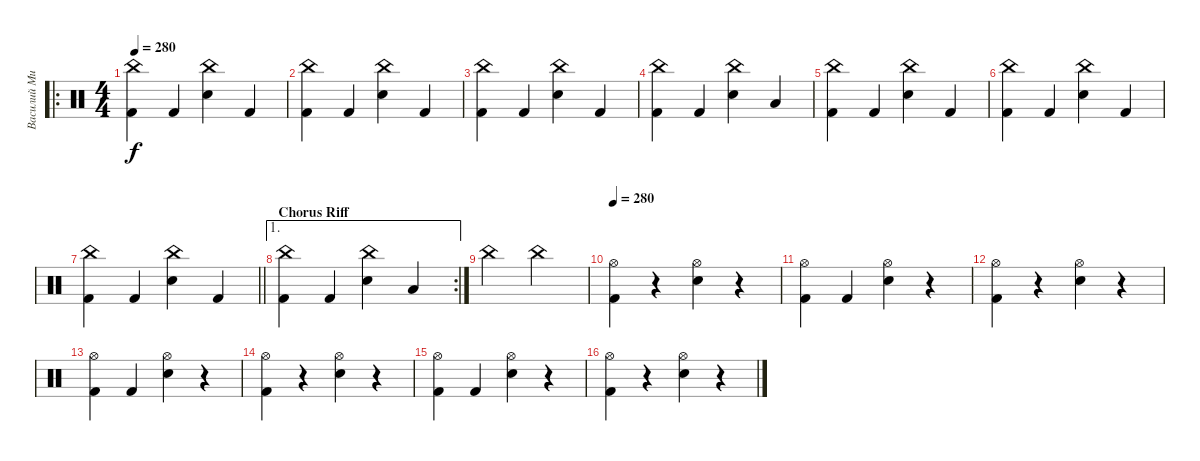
\track ("Василий Михалыч-ударные" "Василий Ми") {instrument percussion}
\staff {score}
\articulation defaults
\ro
\ts (4 4)
\tempo 280
\clef neutral
\ks c
("Kick (hit) 2" "China (hit)").4{dy f} "Kick (hit) 2".4 ("Snare (hit) 2" "China (hit)").4 "Kick (hit) 2".4 |
("Kick (hit) 2" "China (hit)").4 "Kick (hit) 2".4 ("Snare (hit) 2" "China (hit)").4 "Kick (hit) 2".4 |
("Kick (hit) 2" "China (hit)").4 "Kick (hit) 2".4 ("Snare (hit) 2" "China (hit)").4 "Kick (hit) 2".4 |
("Kick (hit) 2" "China (hit)").4 "Kick (hit) 2".4 ("Snare (hit) 2" "China (hit)").4 "Low Tom (hit)".4 |
("Kick (hit) 2" "China (hit)").4 "Kick (hit) 2".4 ("Snare (hit) 2" "China (hit)").4 "Kick (hit) 2".4 |
("Kick (hit) 2" "China (hit)").4 "Kick (hit) 2".4 ("Snare (hit) 2" "China (hit)").4 "Kick (hit) 2".4 |
\barLineRight lightlight
("Kick (hit) 2" "China (hit)").4 "Kick (hit) 2".4 ("Snare (hit) 2" "China (hit)").4 "Kick (hit) 2".4 |
\ae 1
\rc 2
\section ("" "Chorus Riff")
("Kick (hit) 2" "China (hit)").4 "Kick (hit) 2".4 ("Snare (hit) 2" "China (hit)").4 "Low Tom (hit)".4 |
"China (hit)".2 "China (hit)".2 |
\tempo 280
("Kick (hit) 2" "Hi-Hat (open)").4 r.4 ("Snare (hit) 2" "Hi-Hat (open)").4 r.4 |
("Kick (hit) 2" "Hi-Hat (open)").4 "Kick (hit) 2".4 ("Snare (hit) 2" "Hi-Hat (open)").4 r.4 |
("Kick (hit) 2" "Hi-Hat (open)").4 r.4 ("Snare (hit) 2" "Hi-Hat (open)").4 r.4 |
("Kick (hit) 2" "Hi-Hat (open)").4 "Kick (hit) 2".4 ("Snare (hit) 2" "Hi-Hat (open)").4 r.4 |
("Kick (hit) 2" "Hi-Hat (open)").4 r.4 ("Snare (hit) 2" "Hi-Hat (open)").4 r.4 |
("Kick (hit) 2" "Hi-Hat (open)").4 "Kick (hit) 2".4 ("Snare (hit) 2" "Hi-Hat (open)").4 r.4 |
("Kick (hit) 2" "Hi-Hat (open)").4 r.4 ("Snare (hit) 2" "Hi-Hat (open)").4 r.4
